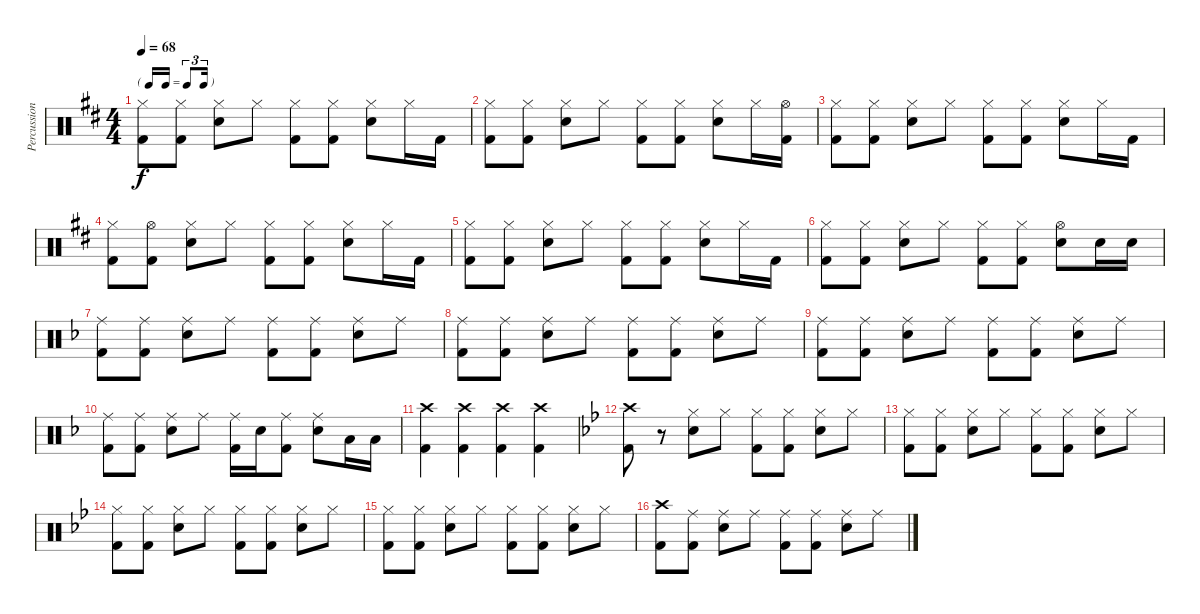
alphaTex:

\track ("Percussion" "Percussion") {instrument percussion}
\staff {score}
\articulation defaults
\ts (4 4)
\tf triplet16th
\tempo 68
\clef neutral
\ks d
("Hi-Hat (closed)" "Kick (hit) 2").8{dy f} ("Hi-Hat (closed)" "Kick (hit) 2").8 ("Hi-Hat (closed)" "Snare (hit) 2").8 "Hi-Hat (closed)".8 ("Hi-Hat (closed)" "Kick (hit) 2").8 ("Hi-Hat (closed)" "Kick (hit) 2").8 ("Hi-Hat (closed)" "Snare (hit) 2").8 "Hi-Hat (closed)".16 "Kick (hit) 2".16 |
("Hi-Hat (closed)" "Kick (hit) 2").8 ("Hi-Hat (closed)" "Kick (hit) 2").8 ("Hi-Hat (closed)" "Snare (hit) 2").8 "Hi-Hat (closed)".8 ("Hi-Hat (closed)" "Kick (hit) 2").8 ("Hi-Hat (closed)" "Kick (hit) 2").8 ("Hi-Hat (closed)" "Snare (hit) 2").8 "Hi-Hat (closed)".16 ("Hi-Hat (open)" "Kick (hit) 2").16 |
("Hi-Hat (closed)" "Kick (hit) 2").8 ("Hi-Hat (closed)" "Kick (hit) 2").8 ("Hi-Hat (closed)" "Snare (hit) 2").8 "Hi-Hat (closed)".8 ("Hi-Hat (closed)" "Kick (hit) 2").8 ("Hi-Hat (closed)" "Kick (hit) 2").8 ("Hi-Hat (closed)" "Snare (hit) 2").8 "Hi-Hat (closed)".16 "Kick (hit) 2".16 |
("Hi-Hat (closed)" "Kick (hit) 2").8 ("Hi-Hat (open)" "Kick (hit) 2").8 ("Hi-Hat (closed)" "Snare (hit) 2").8 "Hi-Hat (closed)".8 ("Hi-Hat (closed)" "Kick (hit) 2").8 ("Hi-Hat (closed)" "Kick (hit) 2").8 ("Hi-Hat (closed)" "Snare (hit) 2").8 "Hi-Hat (closed)".16 "Kick (hit) 2".16 |
("Hi-Hat (closed)" "Kick (hit) 2").8 ("Hi-Hat (closed)" "Kick (hit) 2").8 ("Hi-Hat (closed)" "Snare (hit) 2").8 "Hi-Hat (closed)".8 ("Hi-Hat (closed)" "Kick (hit) 2").8 ("Hi-Hat (closed)" "Kick (hit) 2").8 ("Hi-Hat (closed)" "Snare (hit) 2").8 "Hi-Hat (closed)".16 "Kick (hit) 2".16 |
("Hi-Hat (closed)" "Kick (hit) 2").8 ("Hi-Hat (closed)" "Kick (hit) 2").8 ("Hi-Hat (closed)" "Snare (hit) 2").8 "Hi-Hat (closed)".8 ("Hi-Hat (closed)" "Kick (hit) 2").8 ("Hi-Hat (closed)" "Kick (hit) 2").8 ("Hi-Hat (open)" "Snare (hit) 2").8 "Snare (hit) 2".16 "Snare (hit) 2".16 |
\ks f
("Ride (middle)" "Kick (hit) 2").8 ("Ride (middle)" "Kick (hit) 2").8 ("Ride (middle)" "Snare (hit) 2").8 "Ride (middle)".8 ("Ride (middle)" "Kick (hit) 2").8 ("Ride (middle)" "Kick (hit) 2").8 ("Ride (middle)" "Snare (hit) 2").8 "Ride (middle)".8 |
("Ride (middle)" "Kick (hit) 2").8 ("Ride (middle)" "Kick (hit) 2").8 ("Ride (middle)" "Snare (hit) 2").8 "Ride (middle)".8 ("Ride (middle)" "Kick (hit) 2").8 ("Ride (middle)" "Kick (hit) 2").8 ("Ride (middle)" "Snare (hit) 2").8 "Ride (middle)".8 |
("Ride (middle)" "Kick (hit) 2").8 ("Ride (middle)" "Kick (hit) 2").8 ("Ride (middle)" "Snare (hit) 2").8 "Ride (middle)".8 ("Ride (middle)" "Kick (hit) 2").8 ("Ride (middle)" "Kick (hit) 2").8 ("Ride (middle)" "Snare (hit) 2").8 "Ride (middle)".8 |
("Ride (middle)" "Kick (hit) 2").8 ("Ride (middle)" "Kick (hit) 2").8 ("Ride (middle)" "Snare (hit) 2").8 "Ride (middle)".8 ("Ride (middle)" "Kick (hit) 2").16 "Snare (hit) 2".16 ("Ride (middle)" "Kick (hit) 2").8 ("Ride (middle)" "Snare (hit) 2").8 "Low Floor Tom (hit)".16 "Low Floor Tom (hit)".16 |
("Crash high (hit)" "Kick (hit) 2").4 ("Crash high (hit)" "Kick (hit) 2").4 ("Crash high (hit)" "Kick (hit) 2").4 ("Crash high (hit)" "Kick (hit) 2").4 |
\ks bb
("Crash high (hit)" "Kick (hit) 2").8 r.8 ("Hi-Hat (closed)" "Snare (hit) 2").8 "Hi-Hat (closed)".8 ("Hi-Hat (closed)" "Kick (hit) 2").8 ("Hi-Hat (closed)" "Kick (hit) 2").8 ("Hi-Hat (closed)" "Snare (hit) 2").8 "Hi-Hat (closed)".8 |
("Hi-Hat (closed)" "Kick (hit) 2").8 ("Hi-Hat (closed)" "Kick (hit) 2").8 ("Hi-Hat (closed)" "Snare (hit) 2").8 "Hi-Hat (closed)".8 ("Hi-Hat (closed)" "Kick (hit) 2").8 ("Hi-Hat (closed)" "Kick (hit) 2").8 ("Hi-Hat (closed)" "Snare (hit) 2").8 "Hi-Hat (closed)".8 |
("Hi-Hat (closed)" "Kick (hit) 2").8 ("Hi-Hat (closed)" "Kick (hit) 2").8 ("Hi-Hat (closed)" "Snare (hit) 2").8 "Hi-Hat (closed)".8 ("Hi-Hat (closed)" "Kick (hit) 2").8 ("Hi-Hat (closed)" "Kick (hit) 2").8 ("Hi-Hat (closed)" "Snare (hit) 2").8 "Hi-Hat (closed)".8 |
("Hi-Hat (closed)" "Kick (hit) 2").8 ("Hi-Hat (closed)" "Kick (hit) 2").8 ("Hi-Hat (closed)" "Snare (hit) 2").8 "Hi-Hat (closed)".8 ("Hi-Hat (closed)" "Kick (hit) 2").8 ("Hi-Hat (closed)" "Kick (hit) 2").8 ("Hi-Hat (closed)" "Snare (hit) 2").8 "Hi-Hat (closed)".8 |
("Crash high (hit)" "Kick (hit) 2").8 ("Ride (middle)" "Kick (hit) 2").8 ("Ride (middle)" "Snare (hit) 2").8 "Ride (middle)".8 ("Ride (middle)" "Kick (hit) 2").8 ("Ride (middle)" "Kick (hit) 2").8 ("Ride (middle)" "Snare (hit) 2").8 "Ride (middle)".8
